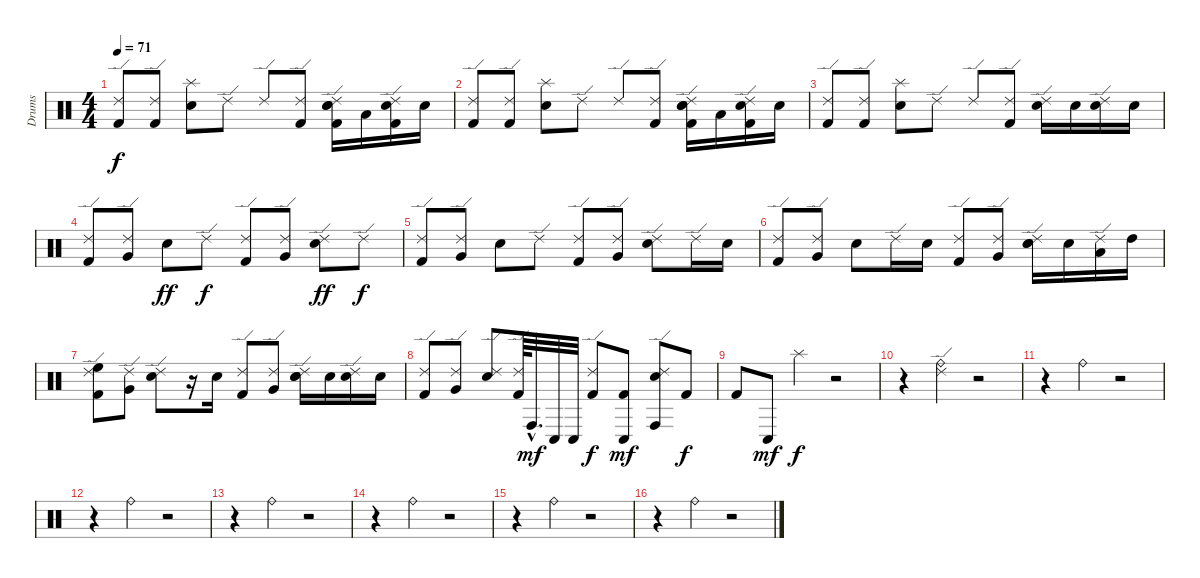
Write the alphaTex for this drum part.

\track ("Drums" "Drums") {instrument percussion}
\staff {score}
\articulation defaults
\ts (4 4)
\tempo 71
\clef neutral
\ks c
("Ride (edge) 2" "Kick (hit) 2").8{dy f} ("Ride (edge) 2" "Kick (hit) 2").8 ("Splash (hit)" "Snare (hit) 2").8 "Ride (edge) 2".8 "Ride (edge) 2".8 ("Ride (edge) 2" "Kick (hit) 2").8 ("Ride (edge) 2" "Snare (hit) 2" "Electric Snare (hit)" "Kick (hit) 2").16 "Low Floor Tom (hit)".16 ("Ride (edge) 2" "Snare (hit) 2" "Kick (hit) 2").16 "Snare (hit) 2".16 |
("Ride (edge) 2" "Kick (hit) 2").8 ("Ride (edge) 2" "Kick (hit) 2").8 ("Splash (hit)" "Snare (hit) 2").8 "Ride (edge) 2".8 "Ride (edge) 2".8 ("Ride (edge) 2" "Kick (hit) 2").8 ("Ride (edge) 2" "Snare (hit) 2" "Electric Snare (hit)" "Kick (hit) 2").16 "Low Floor Tom (hit)".16 ("Ride (edge) 2" "Snare (hit) 2" "Kick (hit) 2").16 "Snare (hit) 2".16 |
("Ride (edge) 2" "Kick (hit) 2").8 ("Ride (edge) 2" "Kick (hit) 2").8 ("Splash (hit)" "Snare (hit) 2").8 "Ride (edge) 2".8 "Ride (edge) 2".8 ("Ride (edge) 2" "Kick (hit) 2").8 ("Ride (edge) 2" "Snare (hit) 2").16 "Snare (hit) 2".16 ("Ride (edge) 2" "Snare (hit) 2").16 "Snare (hit) 2".16 |
("Ride (edge) 2" "Kick (hit) 2").8 ("Ride (edge) 2" "Very Low Tom (hit)").8 "Snare (hit) 2".8{dy ff} "Ride (edge) 2".8{dy f} ("Ride (edge) 2" "Kick (hit) 2").8 ("Ride (edge) 2" "Very Low Tom (hit)").8 ("Ride (edge) 2" "Snare (hit) 2").8{dy ff} "Ride (edge) 2".8{dy f} |
("Ride (edge) 2" "Kick (hit) 2").8 ("Ride (edge) 2" "Very Low Tom (hit)").8 "Snare (hit) 2".8 "Ride (edge) 2".8 ("Ride (edge) 2" "Kick (hit) 2").8 ("Ride (edge) 2" "Very Low Tom (hit)").8 ("Ride (edge) 2" "Snare (hit) 2").8 "Ride (edge) 2".16 "Electric Snare (hit)".16 |
("Ride (edge) 2" "Kick (hit) 2").8 ("Ride (edge) 2" "Very Low Tom (hit)").8 "Electric Snare (hit)".8 "Ride (edge) 2".16 "Electric Snare (hit)".16 ("Ride (edge) 2" "Kick (hit) 2").8 ("Ride (edge) 2" "Very Low Tom (hit)").8 ("Ride (edge) 2" "Snare (hit) 2" "Electric Snare (hit)").16 "Electric Snare (hit)".16 ("Ride (edge) 2" "Low Tom (hit)").16 "High Tom (hit)".16 |
("Ride (edge) 2" "High Floor Tom (hit)" "Kick (hit) 2").8 ("Ride (edge) 2" "Very Low Tom (hit)").8 ("Ride (edge) 2" "Electric Snare (hit)").8 r.16 "Electric Snare (hit)".16 ("Ride (edge) 2" "Kick (hit) 2").8 ("Ride (edge) 2" "Very Low Tom (hit)").8 ("Ride (edge) 2" "Snare (hit) 2" "Electric Snare (hit)").16 "Snare (hit) 2".16 ("Ride (edge) 2" "Electric Snare (hit)").16 "Electric Snare (hit)".16 |
("Ride (edge) 2" "Kick (hit) 2").8 ("Ride (edge) 2" "Very Low Tom (hit)").8 ("Ride (edge) 2" "Snare (hit) 2").8 ("Ride (edge) 2" "Kick (hit) 2").64 "Conga high (hit)"{hac}.32{d dy mf} "Conga low (hit)".32 "Conga low (hit)".32 ("Ride (edge) 2" "Kick (hit) 2").8{dy f} ("Conga low (hit)" "Kick (hit) 2").8{dy mf} ("Ride (edge) 2" "Conga high (hit)" "Snare (hit) 2").8 "Kick (hit) 2".8{dy f} |
"Kick (hit) 2".8 "Conga low (hit)".8{dy mf} "Splash (hit)".4{dy f} r.2 |
r.4 ("Ride (bell)" "Ride (edge) 2").4 r.2 |
r.4 "Ride (bell)".4 r.2 |
r.4 "Ride (bell)".4 r.2 |
r.4 "Ride (bell)".4 r.2 |
r.4 "Ride (bell)".4 r.2 |
r.4 "Ride (bell)".4 r.2 |
r.4 "Ride (bell)".4 r.2
